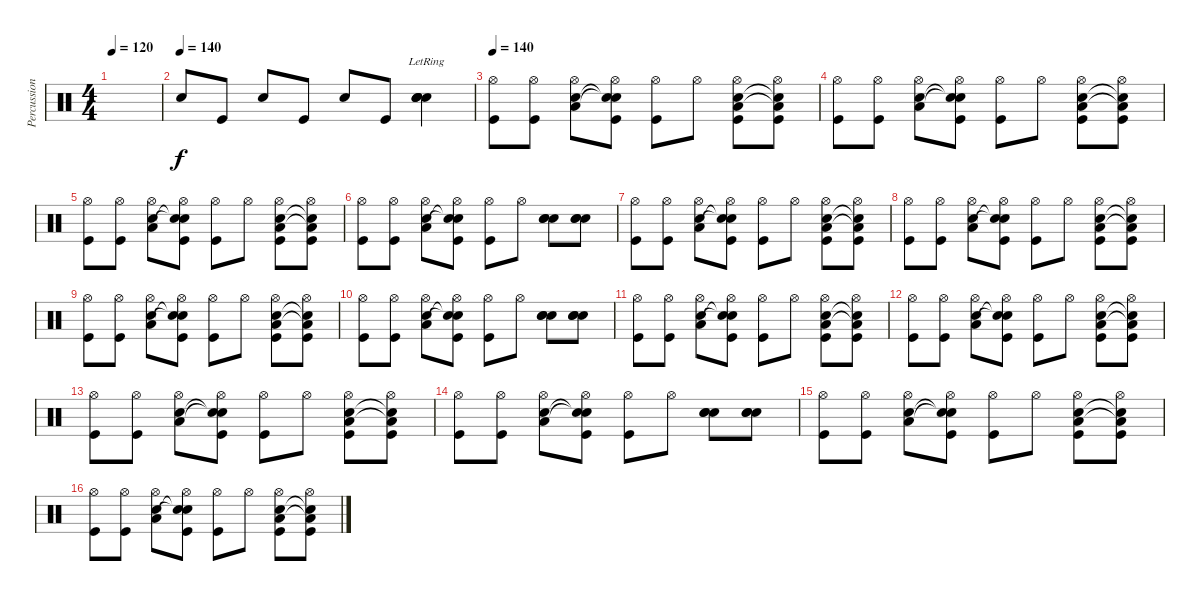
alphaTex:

\track ("Percussion" "Percussion") {instrument percussion}
\staff {score}
\articulation defaults
\ts (4 4)
\tempo 120
\clef neutral
\ks c
|
\tempo (140)
"Snare (hit) 2".8 "Kick (hit)".8 "Snare (hit) 2".8 "Kick (hit)".8 "Snare (hit) 2".8 "Kick (hit)".8 ("Snare (hit) 2" "Snare (hit) 2" "Snare (hit) 2" "Snare (hit) 2"{lr}).4 |
\tempo 140
("Hi-Hat (open)" "Kick (hit)").8 ("Hi-Hat (open)" "Kick (hit)").8 ("Hi-Hat (open)" "Snare (hit) 2" "Low Tom (hit)").8 ("Hi-Hat (open)" "Snare (hit) 2"{t} "Snare (hit)"{t} "Kick (hit)").8 ("Hi-Hat (open)" "Kick (hit)").8 "Hi-Hat (open)".8 ("Hi-Hat (open)" "Low Tom (hit)" "Snare (hit) 2" "Kick (hit)").8 ("Hi-Hat (open)" "Low Tom (hit)"{t} "Snare (hit) 2"{t} "Kick (hit)").8 |
("Hi-Hat (open)" "Kick (hit)").8 ("Hi-Hat (open)" "Kick (hit)").8 ("Hi-Hat (open)" "Low Tom (hit)" "Snare (hit) 2").8 ("Hi-Hat (open)" "Snare (hit) 2"{t} "Snare (hit)"{t} "Kick (hit)").8 ("Hi-Hat (open)" "Kick (hit)").8 "Hi-Hat (open)".8 ("Hi-Hat (open)" "Low Tom (hit)" "Snare (hit) 2" "Kick (hit)").8 ("Hi-Hat (open)" "Low Tom (hit)"{t} "Snare (hit) 2"{t} "Kick (hit)").8 |
("Hi-Hat (open)" "Kick (hit)").8 ("Hi-Hat (open)" "Kick (hit)").8 ("Hi-Hat (open)" "Snare (hit) 2" "Low Tom (hit)").8 ("Hi-Hat (open)" "Snare (hit) 2"{t} "Snare (hit)"{t} "Kick (hit)").8 ("Hi-Hat (open)" "Kick (hit)").8 "Hi-Hat (open)".8 ("Hi-Hat (open)" "Low Tom (hit)" "Snare (hit) 2" "Kick (hit)").8 ("Hi-Hat (open)" "Low Tom (hit)"{t} "Snare (hit) 2"{t} "Kick (hit)").8 |
("Hi-Hat (open)" "Kick (hit)").8 ("Hi-Hat (open)" "Kick (hit)").8 ("Hi-Hat (open)" "Low Tom (hit)" "Snare (hit) 2").8 ("Hi-Hat (open)" "Snare (hit) 2"{t} "Snare (hit)"{t} "Kick (hit)").8 ("Hi-Hat (open)" "Kick (hit)").8 "Hi-Hat (open)".8 ("Snare (hit) 2" "Snare (hit) 2" "Snare (hit) 2").8 ("Snare (hit) 2" "Snare (hit) 2" "Snare (hit) 2").8 |
("Hi-Hat (open)" "Kick (hit)").8 ("Hi-Hat (open)" "Kick (hit)").8 ("Hi-Hat (open)" "Snare (hit) 2" "Low Tom (hit)").8 ("Hi-Hat (open)" "Snare (hit) 2"{t} "Snare (hit)"{t} "Kick (hit)").8 ("Hi-Hat (open)" "Kick (hit)").8 "Hi-Hat (open)".8 ("Hi-Hat (open)" "Low Tom (hit)" "Snare (hit) 2" "Kick (hit)").8 ("Hi-Hat (open)" "Low Tom (hit)"{t} "Snare (hit) 2"{t} "Kick (hit)").8 |
("Hi-Hat (open)" "Kick (hit)").8 ("Hi-Hat (open)" "Kick (hit)").8 ("Hi-Hat (open)" "Low Tom (hit)" "Snare (hit) 2").8 ("Hi-Hat (open)" "Snare (hit) 2"{t} "Snare (hit)"{t} "Kick (hit)").8 ("Hi-Hat (open)" "Kick (hit)").8 "Hi-Hat (open)".8 ("Hi-Hat (open)" "Low Tom (hit)" "Snare (hit) 2" "Kick (hit)").8 ("Hi-Hat (open)" "Low Tom (hit)"{t} "Snare (hit) 2"{t} "Kick (hit)").8 |
("Hi-Hat (open)" "Kick (hit)").8 ("Hi-Hat (open)" "Kick (hit)").8 ("Hi-Hat (open)" "Snare (hit) 2" "Low Tom (hit)").8 ("Hi-Hat (open)" "Snare (hit) 2"{t} "Snare (hit)"{t} "Kick (hit)").8 ("Hi-Hat (open)" "Kick (hit)").8 "Hi-Hat (open)".8 ("Hi-Hat (open)" "Low Tom (hit)" "Snare (hit) 2" "Kick (hit)").8 ("Hi-Hat (open)" "Low Tom (hit)"{t} "Snare (hit) 2"{t} "Kick (hit)").8 |
("Hi-Hat (open)" "Kick (hit)").8 ("Hi-Hat (open)" "Kick (hit)").8 ("Hi-Hat (open)" "Low Tom (hit)" "Snare (hit) 2").8 ("Hi-Hat (open)" "Snare (hit) 2"{t} "Snare (hit)"{t} "Kick (hit)").8 ("Hi-Hat (open)" "Kick (hit)").8 "Hi-Hat (open)".8 ("Snare (hit) 2" "Snare (hit) 2" "Snare (hit) 2").8 ("Snare (hit) 2" "Snare (hit) 2" "Snare (hit) 2").8 |
("Hi-Hat (open)" "Kick (hit)").8 ("Hi-Hat (open)" "Kick (hit)").8 ("Hi-Hat (open)" "Snare (hit) 2" "Low Tom (hit)").8 ("Hi-Hat (open)" "Snare (hit) 2"{t} "Snare (hit)"{t} "Kick (hit)").8 ("Hi-Hat (open)" "Kick (hit)").8 "Hi-Hat (open)".8 ("Hi-Hat (open)" "Low Tom (hit)" "Snare (hit) 2" "Kick (hit)").8 ("Hi-Hat (open)" "Low Tom (hit)"{t} "Snare (hit) 2"{t} "Kick (hit)").8 |
("Hi-Hat (open)" "Kick (hit)").8 ("Hi-Hat (open)" "Kick (hit)").8 ("Hi-Hat (open)" "Low Tom (hit)" "Snare (hit) 2").8 ("Hi-Hat (open)" "Snare (hit) 2"{t} "Snare (hit)"{t} "Kick (hit)").8 ("Hi-Hat (open)" "Kick (hit)").8 "Hi-Hat (open)".8 ("Hi-Hat (open)" "Low Tom (hit)" "Snare (hit) 2" "Kick (hit)").8 ("Hi-Hat (open)" "Low Tom (hit)"{t} "Snare (hit) 2"{t} "Kick (hit)").8 |
("Hi-Hat (open)" "Kick (hit)").8 ("Hi-Hat (open)" "Kick (hit)").8 ("Hi-Hat (open)" "Snare (hit) 2" "Low Tom (hit)").8 ("Hi-Hat (open)" "Snare (hit) 2"{t} "Snare (hit)"{t} "Kick (hit)").8 ("Hi-Hat (open)" "Kick (hit)").8 "Hi-Hat (open)".8 ("Hi-Hat (open)" "Low Tom (hit)" "Snare (hit) 2" "Kick (hit)").8 ("Hi-Hat (open)" "Low Tom (hit)"{t} "Snare (hit) 2"{t} "Kick (hit)").8 |
("Hi-Hat (open)" "Kick (hit)").8 ("Hi-Hat (open)" "Kick (hit)").8 ("Hi-Hat (open)" "Low Tom (hit)" "Snare (hit) 2").8 ("Hi-Hat (open)" "Snare (hit) 2"{t} "Snare (hit)"{t} "Kick (hit)").8 ("Hi-Hat (open)" "Kick (hit)").8 "Hi-Hat (open)".8 ("Snare (hit) 2" "Snare (hit) 2" "Snare (hit) 2").8 ("Snare (hit) 2" "Snare (hit) 2" "Snare (hit) 2").8 |
("Hi-Hat (open)" "Kick (hit)").8 ("Hi-Hat (open)" "Kick (hit)").8 ("Hi-Hat (open)" "Snare (hit) 2" "Low Tom (hit)").8 ("Hi-Hat (open)" "Snare (hit) 2"{t} "Snare (hit)"{t} "Kick (hit)").8 ("Hi-Hat (open)" "Kick (hit)").8 "Hi-Hat (open)".8 ("Hi-Hat (open)" "Low Tom (hit)" "Snare (hit) 2" "Kick (hit)").8 ("Hi-Hat (open)" "Low Tom (hit)"{t} "Snare (hit) 2"{t} "Kick (hit)").8 |
("Hi-Hat (open)" "Kick (hit)").8 ("Hi-Hat (open)" "Kick (hit)").8 ("Hi-Hat (open)" "Low Tom (hit)" "Snare (hit) 2").8 ("Hi-Hat (open)" "Snare (hit) 2"{t} "Snare (hit)"{t} "Kick (hit)").8 ("Hi-Hat (open)" "Kick (hit)").8 "Hi-Hat (open)".8 ("Hi-Hat (open)" "Low Tom (hit)" "Snare (hit) 2" "Kick (hit)").8 ("Hi-Hat (open)" "Low Tom (hit)"{t} "Snare (hit) 2"{t} "Kick (hit)").8
